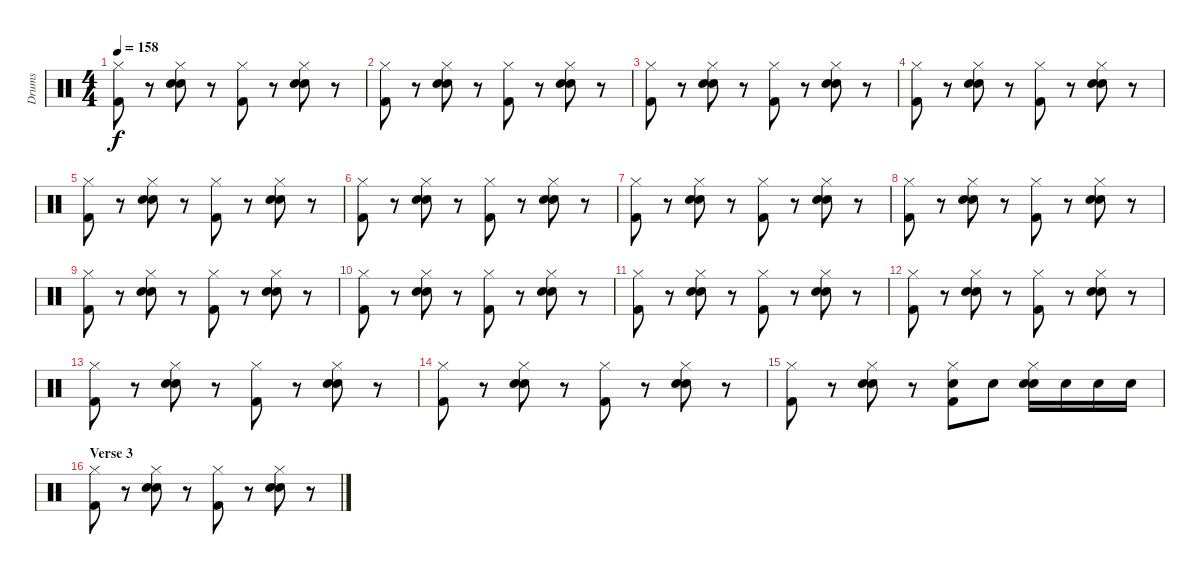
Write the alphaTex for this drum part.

\track ("Drums" "Drums") {instrument percussion}
\staff {score}
\articulation defaults
\ts (4 4)
\tempo 158
\clef neutral
\ks c
("Hi-Hat (closed)" "Kick (hit) 2").8{dy f} r.8 ("Hi-Hat (closed)" "Snare (hit) 2" "Snare (hit) 2").8 r.8 ("Hi-Hat (closed)" "Kick (hit) 2").8 r.8 ("Hi-Hat (closed)" "Snare (hit) 2" "Snare (hit) 2").8 r.8 |
("Hi-Hat (closed)" "Kick (hit) 2").8 r.8 ("Hi-Hat (closed)" "Snare (hit) 2" "Snare (hit) 2").8 r.8 ("Hi-Hat (closed)" "Kick (hit) 2").8 r.8 ("Hi-Hat (closed)" "Snare (hit) 2" "Snare (hit) 2").8 r.8 |
("Hi-Hat (closed)" "Kick (hit) 2").8 r.8 ("Hi-Hat (closed)" "Snare (hit) 2" "Snare (hit) 2").8 r.8 ("Hi-Hat (closed)" "Kick (hit) 2").8 r.8 ("Hi-Hat (closed)" "Snare (hit) 2" "Snare (hit) 2").8 r.8 |
("Hi-Hat (closed)" "Kick (hit) 2").8 r.8 ("Hi-Hat (closed)" "Snare (hit) 2" "Snare (hit) 2").8 r.8 ("Hi-Hat (closed)" "Kick (hit) 2").8 r.8 ("Hi-Hat (closed)" "Snare (hit) 2" "Snare (hit) 2").8 r.8 |
("Hi-Hat (closed)" "Kick (hit) 2").8 r.8 ("Hi-Hat (closed)" "Snare (hit) 2" "Snare (hit) 2").8 r.8 ("Hi-Hat (closed)" "Kick (hit) 2").8 r.8 ("Hi-Hat (closed)" "Snare (hit) 2" "Snare (hit) 2").8 r.8 |
("Hi-Hat (closed)" "Kick (hit) 2").8 r.8 ("Hi-Hat (closed)" "Snare (hit) 2" "Snare (hit) 2").8 r.8 ("Hi-Hat (closed)" "Kick (hit) 2").8 r.8 ("Hi-Hat (closed)" "Snare (hit) 2" "Snare (hit) 2").8 r.8 |
("Hi-Hat (closed)" "Kick (hit) 2").8 r.8 ("Hi-Hat (closed)" "Snare (hit) 2" "Snare (hit) 2").8 r.8 ("Hi-Hat (closed)" "Kick (hit) 2").8 r.8 ("Hi-Hat (closed)" "Snare (hit) 2" "Snare (hit) 2").8 r.8 |
("Hi-Hat (closed)" "Kick (hit) 2").8 r.8 ("Hi-Hat (closed)" "Snare (hit) 2" "Snare (hit) 2").8 r.8 ("Hi-Hat (closed)" "Kick (hit) 2").8 r.8 ("Hi-Hat (closed)" "Snare (hit) 2" "Snare (hit) 2").8 r.8 |
("Hi-Hat (closed)" "Kick (hit) 2").8 r.8 ("Hi-Hat (closed)" "Snare (hit) 2" "Snare (hit) 2").8 r.8 ("Hi-Hat (closed)" "Kick (hit) 2").8 r.8 ("Hi-Hat (closed)" "Snare (hit) 2" "Snare (hit) 2").8 r.8 |
("Hi-Hat (closed)" "Kick (hit) 2").8 r.8 ("Hi-Hat (closed)" "Snare (hit) 2" "Snare (hit) 2").8 r.8 ("Hi-Hat (closed)" "Kick (hit) 2").8 r.8 ("Hi-Hat (closed)" "Snare (hit) 2" "Snare (hit) 2").8 r.8 |
("Hi-Hat (closed)" "Kick (hit) 2").8 r.8 ("Hi-Hat (closed)" "Snare (hit) 2" "Snare (hit) 2").8 r.8 ("Hi-Hat (closed)" "Kick (hit) 2").8 r.8 ("Hi-Hat (closed)" "Snare (hit) 2" "Snare (hit) 2").8 r.8 |
("Hi-Hat (closed)" "Kick (hit) 2").8 r.8 ("Hi-Hat (closed)" "Snare (hit) 2" "Snare (hit) 2").8 r.8 ("Hi-Hat (closed)" "Kick (hit) 2").8 r.8 ("Hi-Hat (closed)" "Snare (hit) 2" "Snare (hit) 2").8 r.8 |
("Hi-Hat (closed)" "Kick (hit) 2").8 r.8 ("Hi-Hat (closed)" "Snare (hit) 2" "Snare (hit) 2").8 r.8 ("Hi-Hat (closed)" "Kick (hit) 2").8 r.8 ("Hi-Hat (closed)" "Snare (hit) 2" "Snare (hit) 2").8 r.8 |
("Hi-Hat (closed)" "Kick (hit) 2").8 r.8 ("Hi-Hat (closed)" "Snare (hit) 2" "Snare (hit) 2").8 r.8 ("Hi-Hat (closed)" "Kick (hit) 2").8 r.8 ("Hi-Hat (closed)" "Snare (hit) 2" "Snare (hit) 2").8 r.8 |
("Hi-Hat (closed)" "Kick (hit) 2").8 r.8 ("Hi-Hat (closed)" "Snare (hit) 2" "Snare (hit) 2").8 r.8 ("Hi-Hat (closed)" "Snare (hit) 2" "Kick (hit) 2").8 "Snare (hit) 2".8 ("Hi-Hat (closed)" "Snare (hit) 2" "Snare (hit) 2").16 "Snare (hit) 2".16 "Snare (hit) 2".16 "Snare (hit) 2".16 |
\section ("" "Verse 3")
("Hi-Hat (closed)" "Kick (hit) 2").8 r.8 ("Hi-Hat (closed)" "Snare (hit) 2" "Snare (hit) 2").8 r.8 ("Hi-Hat (closed)" "Kick (hit) 2").8 r.8 ("Hi-Hat (closed)" "Snare (hit) 2" "Snare (hit) 2").8 r.8
